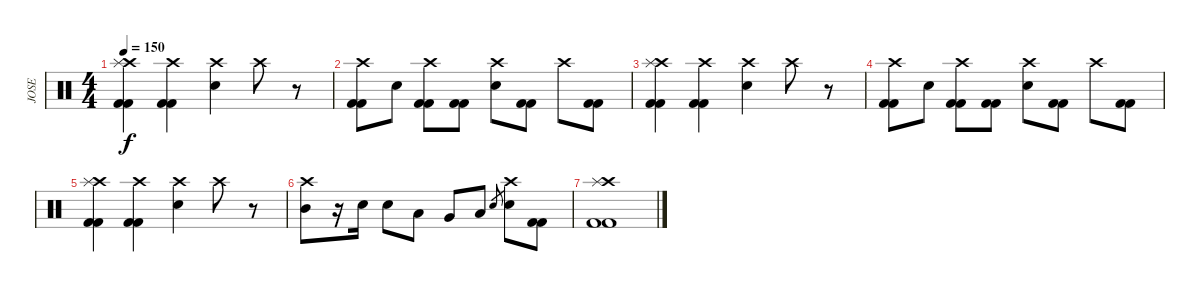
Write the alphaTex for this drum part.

\track ("JOSE" "JOSE") {instrument percussion}
\staff {score}
\articulation defaults
\ts (4 4)
\tempo 150
\clef neutral
\ks c
("Crash high (hit)" "Splash (hit)" "Kick (hit) 2" "Kick (hit) 2").4{dy f} ("Crash high (hit)" "Kick (hit) 2" "Kick (hit) 2").4 ("Crash high (hit)" "Electric Snare (hit)").4 "Crash high (hit)".8 r.8 |
("Crash high (hit)" "Kick (hit) 2" "Kick (hit) 2").8 "Electric Snare (hit)".8 ("Crash high (hit)" "Kick (hit) 2" "Kick (hit) 2").8 ("Kick (hit) 2" "Kick (hit) 2").8 ("Crash high (hit)" "Electric Snare (hit)").8 ("Kick (hit) 2" "Kick (hit) 2").8 "Crash high (hit)".8 ("Kick (hit) 2" "Kick (hit) 2").8 |
("Crash high (hit)" "Splash (hit)" "Kick (hit) 2" "Kick (hit) 2").4 ("Crash high (hit)" "Kick (hit) 2" "Kick (hit) 2").4 ("Crash high (hit)" "Electric Snare (hit)").4 "Crash high (hit)".8 r.8 |
("Crash high (hit)" "Kick (hit) 2" "Kick (hit) 2").8 "Electric Snare (hit)".8 ("Crash high (hit)" "Kick (hit) 2" "Kick (hit) 2").8 ("Kick (hit) 2" "Kick (hit) 2").8 ("Crash high (hit)" "Electric Snare (hit)").8 ("Kick (hit) 2" "Kick (hit) 2").8 "Crash high (hit)".8 ("Kick (hit) 2" "Kick (hit) 2").8 |
("Crash high (hit)" "Splash (hit)" "Kick (hit) 2" "Kick (hit) 2").4 ("Crash high (hit)" "Kick (hit) 2" "Kick (hit) 2").4 ("Crash high (hit)" "Electric Snare (hit)").4 "Crash high (hit)".8 r.8 |
("Crash high (hit)" "Mid Tom (hit)").8 r.16 "Electric Snare (hit)".16 "Electric Snare (hit)".8 "Low Tom (hit)".8 "Very Low Tom (hit)".8 "Low Floor Tom (hit)".8 "Electric Snare (hit)".8{gr} ("Crash high (hit)" "Electric Snare (hit)").8 ("Kick (hit) 2" "Kick (hit) 2").8 |
("Crash high (hit)" "Splash (hit)" "Kick (hit) 2" "Kick (hit) 2").1
